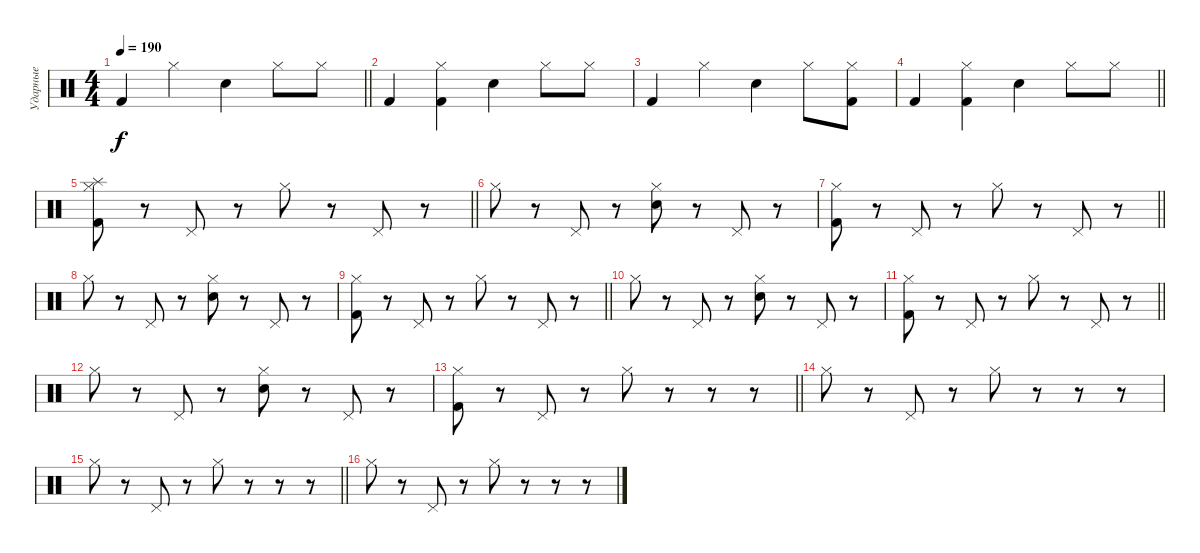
\track ("Ударные" "Ударные") {instrument percussion}
\staff {score}
\articulation defaults
\ts (4 4)
\tempo 190
\clef neutral
\barLineRight lightlight
\ks c "Kick (hit) 2".4{dy f} "Hi-Hat (closed)".4 "Electric Snare (hit)".4 "Hi-Hat (closed)".8 "Hi-Hat (closed)".8
|
"Kick (hit) 2".4 ("Kick (hit) 2" "Hi-Hat (closed)").4 "Electric Snare (hit)".4 "Hi-Hat (closed)".8 "Hi-Hat (closed)".8 |
"Kick (hit) 2".4 "Hi-Hat (closed)".4 "Electric Snare (hit)".4 "Hi-Hat (closed)".8 ("Kick (hit) 2" "Hi-Hat (closed)").8 |
\barLineRight lightlight "Kick (hit) 2".4
("Kick (hit) 2" "Hi-Hat (closed)").4 "Electric Snare (hit)".4 "Hi-Hat (closed)".8 "Hi-Hat (closed)".8 |
\section ("" "")
\barLineRight lightlight
("Hi-Hat (closed)" "Kick (hit) 2" "Splash (hit)").8 r.8 "Pedal Hi-Hat (hit)".8 r.8 "Hi-Hat (closed)".8 r.8 "Pedal Hi-Hat (hit)".8 r.8 |
"Hi-Hat (closed)".8 r.8 "Pedal Hi-Hat (hit)".8 r.8 ("Hi-Hat (closed)" "Electric Snare (hit)").8 r.8 "Pedal Hi-Hat (hit)".8 r.8 |
\barLineRight lightlight
("Hi-Hat (closed)" "Kick (hit) 2").8 r.8 "Pedal Hi-Hat (hit)".8 r.8 "Hi-Hat (closed)".8 r.8 "Pedal Hi-Hat (hit)".8 r.8 |
"Hi-Hat (closed)".8 r.8 "Pedal Hi-Hat (hit)".8 r.8 ("Hi-Hat (closed)" "Electric Snare (hit)").8 r.8 "Pedal Hi-Hat (hit)".8 r.8 |
\barLineRight lightlight
("Hi-Hat (closed)" "Kick (hit) 2").8 r.8 "Pedal Hi-Hat (hit)".8 r.8 "Hi-Hat (closed)".8 r.8 "Pedal Hi-Hat (hit)".8 r.8 |
"Hi-Hat (closed)".8 r.8 "Pedal Hi-Hat (hit)".8 r.8 ("Hi-Hat (closed)" "Electric Snare (hit)").8 r.8 "Pedal Hi-Hat (hit)".8 r.8 |
\barLineRight lightlight
("Hi-Hat (closed)" "Kick (hit) 2").8 r.8 "Pedal Hi-Hat (hit)".8 r.8 "Hi-Hat (closed)".8 r.8 "Pedal Hi-Hat (hit)".8 r.8 |
"Hi-Hat (closed)".8 r.8 "Pedal Hi-Hat (hit)".8 r.8 ("Hi-Hat (closed)" "Electric Snare (hit)").8 r.8 "Pedal Hi-Hat (hit)".8 r.8 |
\barLineRight lightlight
("Hi-Hat (closed)" "Kick (hit) 2").8 r.8 "Pedal Hi-Hat (hit)".8 r.8 "Hi-Hat (closed)".8 r.8 r.8 r.8 |
"Hi-Hat (closed)".8 r.8 "Pedal Hi-Hat (hit)".8 r.8 "Hi-Hat (closed)".8 r.8 r.8 r.8 |
\barLineRight lightlight "Hi-Hat (closed)".8
r.8 "Pedal Hi-Hat (hit)".8 r.8 "Hi-Hat (closed)".8 r.8 r.8 r.8 |
"Hi-Hat (closed)".8 r.8 "Pedal Hi-Hat (hit)".8 r.8 "Hi-Hat (closed)".8 r.8 r.8 r.8
